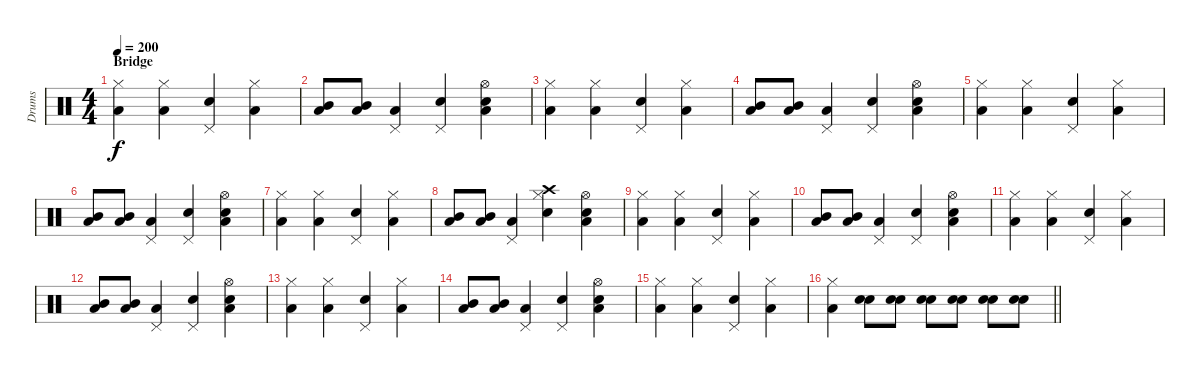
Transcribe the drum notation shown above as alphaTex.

\track ("Drums" "Drums") {instrument percussion}
\staff {score}
\articulation defaults
\ts (4 4)
\section ("" "Bridge")
\tempo 200
\clef neutral
\ks c
("Hi-Hat (closed)" "Low Tom (hit)").4{dy f} ("Hi-Hat (closed)" "Low Tom (hit)").4 ("Electric Snare (hit)" "Pedal Hi-Hat (hit)").4 ("Hi-Hat (closed)" "Low Tom (hit)").4 |
("Low Floor Tom (hit)" "Mid Tom (hit)").8 ("Low Floor Tom (hit)" "Mid Tom (hit)").8 ("Pedal Hi-Hat (hit)" "Low Tom (hit)").4 ("Snare (hit) 2" "Pedal Hi-Hat (hit)").4 ("Electric Snare (hit)" "Low Tom (hit)" "Hi-Hat (open)").4 |
("Hi-Hat (closed)" "Low Tom (hit)").4 ("Hi-Hat (closed)" "Low Tom (hit)").4 ("Electric Snare (hit)" "Pedal Hi-Hat (hit)").4 ("Hi-Hat (closed)" "Low Tom (hit)").4 |
("Low Floor Tom (hit)" "Mid Tom (hit)").8 ("Low Floor Tom (hit)" "Mid Tom (hit)").8 ("Pedal Hi-Hat (hit)" "Low Tom (hit)").4 ("Snare (hit) 2" "Pedal Hi-Hat (hit)").4 ("Electric Snare (hit)" "Low Tom (hit)" "Hi-Hat (open)").4 |
("Hi-Hat (closed)" "Low Tom (hit)").4 ("Hi-Hat (closed)" "Low Tom (hit)").4 ("Electric Snare (hit)" "Pedal Hi-Hat (hit)").4 ("Hi-Hat (closed)" "Low Tom (hit)").4 |
("Low Floor Tom (hit)" "Mid Tom (hit)").8 ("Low Floor Tom (hit)" "Mid Tom (hit)").8 ("Pedal Hi-Hat (hit)" "Low Tom (hit)").4 ("Snare (hit) 2" "Pedal Hi-Hat (hit)").4 ("Electric Snare (hit)" "Low Tom (hit)" "Hi-Hat (open)").4 |
("Hi-Hat (closed)" "Low Tom (hit)").4 ("Hi-Hat (closed)" "Low Tom (hit)").4 ("Electric Snare (hit)" "Pedal Hi-Hat (hit)").4 ("Hi-Hat (closed)" "Low Tom (hit)").4 |
("Low Floor Tom (hit)" "Mid Tom (hit)").8 ("Low Floor Tom (hit)" "Mid Tom (hit)").8 ("Pedal Hi-Hat (hit)" "Low Tom (hit)").4 ("Snare (hit) 2" "Hi-Hat (closed)" "Crash high (hit)").4 ("Electric Snare (hit)" "Low Tom (hit)" "Hi-Hat (open)").4 |
("Hi-Hat (closed)" "Low Tom (hit)").4 ("Hi-Hat (closed)" "Low Tom (hit)").4 ("Electric Snare (hit)" "Pedal Hi-Hat (hit)").4 ("Hi-Hat (closed)" "Low Tom (hit)").4 |
("Low Floor Tom (hit)" "Mid Tom (hit)").8 ("Low Floor Tom (hit)" "Mid Tom (hit)").8 ("Pedal Hi-Hat (hit)" "Low Tom (hit)").4 ("Snare (hit) 2" "Pedal Hi-Hat (hit)").4 ("Electric Snare (hit)" "Low Tom (hit)" "Hi-Hat (open)").4 |
("Hi-Hat (closed)" "Low Tom (hit)").4 ("Hi-Hat (closed)" "Low Tom (hit)").4 ("Electric Snare (hit)" "Pedal Hi-Hat (hit)").4 ("Hi-Hat (closed)" "Low Tom (hit)").4 |
("Low Floor Tom (hit)" "Mid Tom (hit)").8 ("Low Floor Tom (hit)" "Mid Tom (hit)").8 ("Pedal Hi-Hat (hit)" "Low Tom (hit)").4 ("Snare (hit) 2" "Pedal Hi-Hat (hit)").4 ("Electric Snare (hit)" "Low Tom (hit)" "Hi-Hat (open)").4 |
("Hi-Hat (closed)" "Low Tom (hit)").4 ("Hi-Hat (closed)" "Low Tom (hit)").4 ("Electric Snare (hit)" "Pedal Hi-Hat (hit)").4 ("Hi-Hat (closed)" "Low Tom (hit)").4 |
("Low Floor Tom (hit)" "Mid Tom (hit)").8 ("Low Floor Tom (hit)" "Mid Tom (hit)").8 ("Pedal Hi-Hat (hit)" "Low Tom (hit)").4 ("Snare (hit) 2" "Pedal Hi-Hat (hit)").4 ("Electric Snare (hit)" "Low Tom (hit)" "Hi-Hat (open)").4 |
("Hi-Hat (closed)" "Low Tom (hit)").4 ("Hi-Hat (closed)" "Low Tom (hit)").4 ("Electric Snare (hit)" "Pedal Hi-Hat (hit)").4 ("Hi-Hat (closed)" "Low Tom (hit)").4 |
\barLineRight lightlight
("Hi-Hat (closed)" "Low Tom (hit)").4 ("Snare (hit) 2" "Electric Snare (hit)").8 ("Snare (hit) 2" "Electric Snare (hit)").8 ("Snare (hit) 2" "Electric Snare (hit)").8 ("Snare (hit) 2" "Electric Snare (hit)").8 ("Snare (hit) 2" "Electric Snare (hit)").8 ("Snare (hit) 2" "Electric Snare (hit)").8
